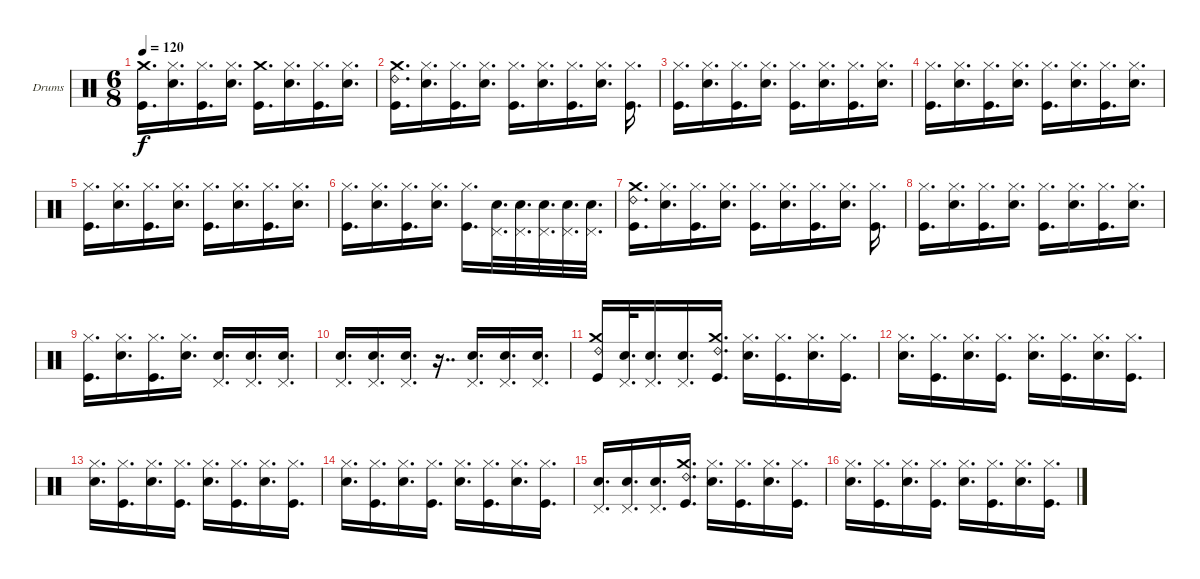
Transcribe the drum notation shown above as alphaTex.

\defaultSystemsLayout 4
\bracketExtendMode groupsimilarinstruments
\firstSystemTrackNameOrientation horizontal
\otherSystemsTrackNameOrientation horizontal
\track ("Drumkit" "Drums") {instrument percussion}
\staff {score}
\articulation defaults
\ts (6 8)
\tempo 120
\clef neutral
\ks c
("Kick (hit)" "Crash medium (hit)").16{d dy f} ("Snare (hit) 2" "Hi-Hat (closed)").16{d} ("Kick (hit)" "Hi-Hat (closed)").16{d} ("Snare (hit) 2" "Hi-Hat (closed)").16{d} ("Kick (hit)" "Crash medium (hit)").16{d} ("Snare (hit) 2" "Hi-Hat (closed)").16{d} ("Kick (hit)" "Hi-Hat (closed)").16{d} ("Snare (hit) 2" "Hi-Hat (closed)").16{d} |
("Kick (hit)" "Crash medium (hit)" "Ride (bell) 2").16{d} ("Snare (hit) 2" "Hi-Hat (closed)").16{d} ("Kick (hit)" "Hi-Hat (closed)").16{d} ("Snare (hit) 2" "Hi-Hat (closed)").16{d} ("Kick (hit)" "Hi-Hat (closed)").16{d} ("Snare (hit) 2" "Hi-Hat (closed)").16{d} ("Kick (hit)" "Hi-Hat (closed)").16{d} ("Snare (hit) 2" "Hi-Hat (closed)").16{d} ("Kick (hit)" "Hi-Hat (closed)").16{d} |
("Kick (hit)" "Hi-Hat (closed)").16{d} ("Snare (hit) 2" "Hi-Hat (closed)").16{d} ("Kick (hit)" "Hi-Hat (closed)").16{d} ("Snare (hit) 2" "Hi-Hat (closed)").16{d} ("Kick (hit)" "Hi-Hat (closed)").16{d} ("Snare (hit) 2" "Hi-Hat (closed)").16{d} ("Kick (hit)" "Hi-Hat (closed)").16{d} ("Snare (hit) 2" "Hi-Hat (closed)").16{d} |
("Kick (hit)" "Hi-Hat (closed)").16{d} ("Snare (hit) 2" "Hi-Hat (closed)").16{d} ("Kick (hit)" "Hi-Hat (closed)").16{d} ("Snare (hit) 2" "Hi-Hat (closed)").16{d} ("Kick (hit)" "Hi-Hat (closed)").16{d} ("Snare (hit) 2" "Hi-Hat (closed)").16{d} ("Kick (hit)" "Hi-Hat (closed)").16{d} ("Snare (hit) 2" "Hi-Hat (closed)").16{d} |
("Kick (hit)" "Hi-Hat (closed)").16{d} ("Snare (hit) 2" "Hi-Hat (closed)").16{d} ("Kick (hit)" "Hi-Hat (closed)").16{d} ("Snare (hit) 2" "Hi-Hat (closed)").16{d} ("Kick (hit)" "Hi-Hat (closed)").16{d} ("Snare (hit) 2" "Hi-Hat (closed)").16{d} ("Kick (hit)" "Hi-Hat (closed)").16{d} ("Snare (hit) 2" "Hi-Hat (closed)").16{d} |
("Kick (hit)" "Hi-Hat (closed)").16{d} ("Snare (hit) 2" "Hi-Hat (closed)").16{d} ("Kick (hit)" "Hi-Hat (closed)").16{d} ("Snare (hit) 2" "Hi-Hat (closed)").16{d} ("Kick (hit)" "Hi-Hat (closed)").16{d} ("Pedal Hi-Hat (hit)" "Snare (hit) 2").32{d} ("Pedal Hi-Hat (hit)" "Snare (hit) 2").32{d} ("Pedal Hi-Hat (hit)" "Snare (hit) 2").32{d} ("Pedal Hi-Hat (hit)" "Snare (hit) 2").32{d} ("Pedal Hi-Hat (hit)" "Snare (hit) 2").32{d} |
("Kick (hit)" "Crash medium (hit)" "Ride (bell) 2").16{d} ("Snare (hit) 2" "Hi-Hat (closed)").16{d} ("Kick (hit)" "Hi-Hat (closed)").16{d} ("Snare (hit) 2" "Hi-Hat (closed)").16{d} ("Kick (hit)" "Hi-Hat (closed)").16{d} ("Snare (hit) 2" "Hi-Hat (closed)").16{d} ("Kick (hit)" "Hi-Hat (closed)").16{d} ("Snare (hit) 2" "Hi-Hat (closed)").16{d} ("Kick (hit)" "Hi-Hat (closed)").16{d} |
("Kick (hit)" "Hi-Hat (closed)").16{d} ("Snare (hit) 2" "Hi-Hat (closed)").16{d} ("Kick (hit)" "Hi-Hat (closed)").16{d} ("Snare (hit) 2" "Hi-Hat (closed)").16{d} ("Kick (hit)" "Hi-Hat (closed)").16{d} ("Snare (hit) 2" "Hi-Hat (closed)").16{d} ("Kick (hit)" "Hi-Hat (closed)").16{d} ("Snare (hit) 2" "Hi-Hat (closed)").16{d} |
("Kick (hit)" "Hi-Hat (closed)").16{d} ("Snare (hit) 2" "Hi-Hat (closed)").16{d} ("Kick (hit)" "Hi-Hat (closed)").16{d} ("Snare (hit) 2" "Hi-Hat (closed)").16{d} ("Pedal Hi-Hat (hit)" "Snare (hit) 2").16{d} ("Pedal Hi-Hat (hit)" "Snare (hit) 2").16{d} ("Pedal Hi-Hat (hit)" "Snare (hit) 2").16{d} |
("Pedal Hi-Hat (hit)" "Snare (hit) 2").16{d} ("Pedal Hi-Hat (hit)" "Snare (hit) 2").16{d} ("Pedal Hi-Hat (hit)" "Snare (hit) 2").16{d} r.16{dd} ("Pedal Hi-Hat (hit)" "Snare (hit) 2").16{d} ("Pedal Hi-Hat (hit)" "Snare (hit) 2").16{d} ("Pedal Hi-Hat (hit)" "Snare (hit) 2").16{d} |
("Kick (hit)" "Crash medium (hit)" "Ride (bell) 2").16 ("Pedal Hi-Hat (hit)" "Snare (hit) 2").32{d} ("Pedal Hi-Hat (hit)" "Snare (hit) 2").16{d} ("Pedal Hi-Hat (hit)" "Snare (hit) 2").16{d} ("Kick (hit)" "Crash medium (hit)" "Ride (bell) 2").16{d} ("Snare (hit) 2" "Hi-Hat (closed)").16{d} ("Kick (hit)" "Hi-Hat (closed)").16{d} ("Snare (hit) 2" "Hi-Hat (closed)").16{d} ("Kick (hit)" "Hi-Hat (closed)").16{d} |
("Snare (hit) 2" "Hi-Hat (closed)").16{d} ("Kick (hit)" "Hi-Hat (closed)").16{d} ("Snare (hit) 2" "Hi-Hat (closed)").16{d} ("Kick (hit)" "Hi-Hat (closed)").16{d} ("Snare (hit) 2" "Hi-Hat (closed)").16{d} ("Kick (hit)" "Hi-Hat (closed)").16{d} ("Snare (hit) 2" "Hi-Hat (closed)").16{d} ("Kick (hit)" "Hi-Hat (closed)").16{d} |
("Snare (hit) 2" "Hi-Hat (closed)").16{d} ("Kick (hit)" "Hi-Hat (closed)").16{d} ("Snare (hit) 2" "Hi-Hat (closed)").16{d} ("Kick (hit)" "Hi-Hat (closed)").16{d} ("Snare (hit) 2" "Hi-Hat (closed)").16{d} ("Kick (hit)" "Hi-Hat (closed)").16{d} ("Snare (hit) 2" "Hi-Hat (closed)").16{d} ("Kick (hit)" "Hi-Hat (closed)").16{d} |
("Snare (hit) 2" "Hi-Hat (closed)").16{d} ("Kick (hit)" "Hi-Hat (closed)").16{d} ("Snare (hit) 2" "Hi-Hat (closed)").16{d} ("Kick (hit)" "Hi-Hat (closed)").16{d} ("Snare (hit) 2" "Hi-Hat (closed)").16{d} ("Kick (hit)" "Hi-Hat (closed)").16{d} ("Snare (hit) 2" "Hi-Hat (closed)").16{d} ("Kick (hit)" "Hi-Hat (closed)").16{d} |
("Pedal Hi-Hat (hit)" "Snare (hit) 2").16{d} ("Pedal Hi-Hat (hit)" "Snare (hit) 2").16{d} ("Pedal Hi-Hat (hit)" "Snare (hit) 2").16{d} ("Kick (hit)" "Crash medium (hit)" "Ride (bell) 2").16{d} ("Snare (hit) 2" "Hi-Hat (closed)").16{d} ("Kick (hit)" "Hi-Hat (closed)").16{d} ("Snare (hit) 2" "Hi-Hat (closed)").16{d} ("Kick (hit)" "Hi-Hat (closed)").16{d} |
("Snare (hit) 2" "Hi-Hat (closed)").16{d} ("Kick (hit)" "Hi-Hat (closed)").16{d} ("Snare (hit) 2" "Hi-Hat (closed)").16{d} ("Kick (hit)" "Hi-Hat (closed)").16{d} ("Snare (hit) 2" "Hi-Hat (closed)").16{d} ("Kick (hit)" "Hi-Hat (closed)").16{d} ("Snare (hit) 2" "Hi-Hat (closed)").16{d} ("Kick (hit)" "Hi-Hat (closed)").16{d}
